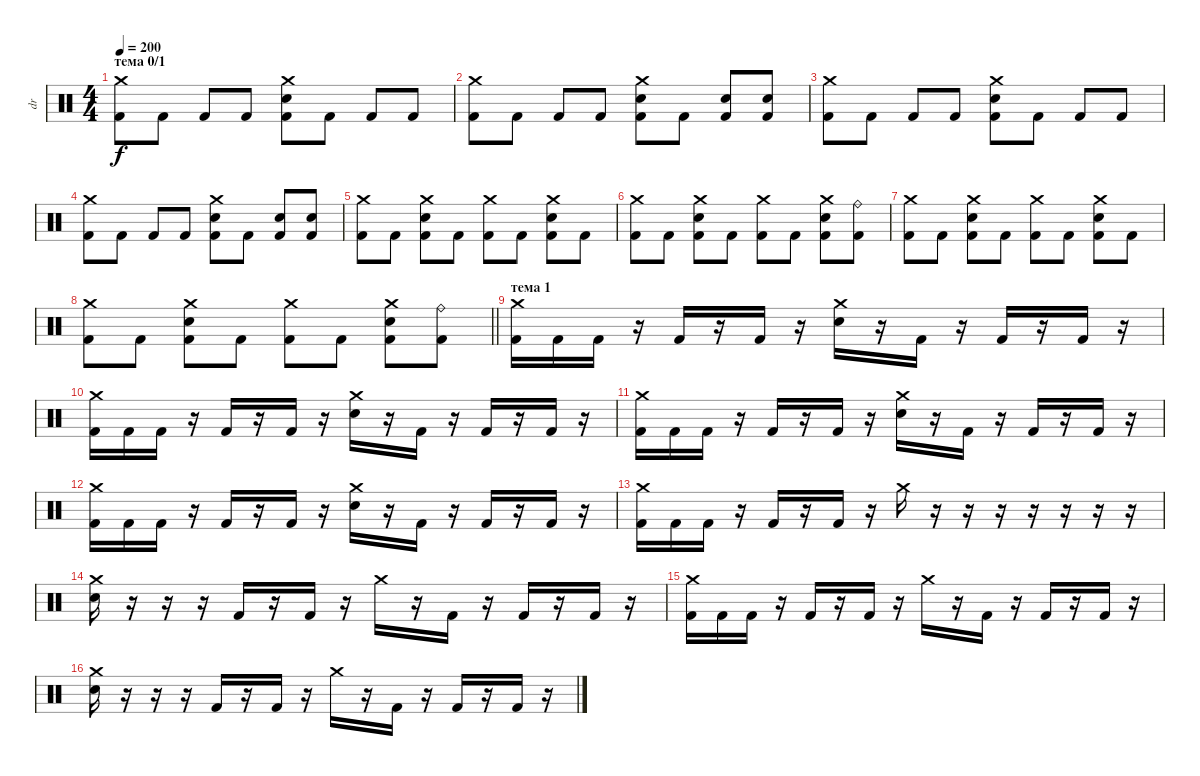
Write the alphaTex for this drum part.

\track ("dr" "dr") {instrument percussion}
\staff {score}
\articulation defaults
\ts (4 4)
\section ("" "тема 0/1")
\tempo 200
\clef neutral
\ks c
("Crash medium (hit)" "Kick (hit) 2").8{dy f} "Kick (hit) 2".8 "Kick (hit) 2".8 "Kick (hit) 2".8 ("Crash medium (hit)" "Electric Snare (hit)" "Kick (hit) 2").8 "Kick (hit) 2".8 "Kick (hit) 2".8 "Kick (hit) 2".8 |
("Crash medium (hit)" "Kick (hit) 2").8 "Kick (hit) 2".8 "Kick (hit) 2".8 "Kick (hit) 2".8 ("Crash medium (hit)" "Electric Snare (hit)" "Kick (hit) 2").8 "Kick (hit) 2".8 ("Electric Snare (hit)" "Kick (hit) 2").8 ("Electric Snare (hit)" "Kick (hit) 2").8 |
("Crash medium (hit)" "Kick (hit) 2").8 "Kick (hit) 2".8 "Kick (hit) 2".8 "Kick (hit) 2".8 ("Crash medium (hit)" "Electric Snare (hit)" "Kick (hit) 2").8 "Kick (hit) 2".8 "Kick (hit) 2".8 "Kick (hit) 2".8 |
("Crash medium (hit)" "Kick (hit) 2").8 "Kick (hit) 2".8 "Kick (hit) 2".8 "Kick (hit) 2".8 ("Crash medium (hit)" "Electric Snare (hit)" "Kick (hit) 2").8 "Kick (hit) 2".8 ("Electric Snare (hit)" "Kick (hit) 2").8 ("Electric Snare (hit)" "Kick (hit) 2").8 |
("Crash medium (hit)" "Kick (hit) 2").8 "Kick (hit) 2".8 ("Crash medium (hit)" "Electric Snare (hit)" "Kick (hit) 2").8 "Kick (hit) 2".8 ("Crash medium (hit)" "Kick (hit) 2").8 "Kick (hit) 2".8 ("Crash medium (hit)" "Electric Snare (hit)" "Kick (hit) 2").8 "Kick (hit) 2".8 |
("Crash medium (hit)" "Kick (hit) 2").8 "Kick (hit) 2".8 ("Crash medium (hit)" "Electric Snare (hit)" "Kick (hit) 2").8 "Kick (hit) 2".8 ("Crash medium (hit)" "Kick (hit) 2").8 "Kick (hit) 2".8 ("Crash medium (hit)" "Electric Snare (hit)" "Kick (hit) 2").8 ("Ride (bell)" "Kick (hit) 2").8 |
("Crash medium (hit)" "Kick (hit) 2").8 "Kick (hit) 2".8 ("Crash medium (hit)" "Electric Snare (hit)" "Kick (hit) 2").8 "Kick (hit) 2".8 ("Crash medium (hit)" "Kick (hit) 2").8 "Kick (hit) 2".8 ("Crash medium (hit)" "Electric Snare (hit)" "Kick (hit) 2").8 "Kick (hit) 2".8 |
\barLineRight lightlight
("Crash medium (hit)" "Kick (hit) 2").8 "Kick (hit) 2".8 ("Crash medium (hit)" "Electric Snare (hit)" "Kick (hit) 2").8 "Kick (hit) 2".8 ("Crash medium (hit)" "Kick (hit) 2").8 "Kick (hit) 2".8 ("Crash medium (hit)" "Electric Snare (hit)" "Kick (hit) 2").8 ("Ride (bell)" "Kick (hit) 2").8 |
\section ("" "тема 1")
("Crash medium (hit)" "Kick (hit) 2").16 "Kick (hit) 2".16 "Kick (hit) 2".16 r.16 "Kick (hit) 2".16 r.16 "Kick (hit) 2".16 r.16 ("Crash medium (hit)" "Electric Snare (hit)").16 r.16 "Kick (hit) 2".16 r.16 "Kick (hit) 2".16 r.16 "Kick (hit) 2".16 r.16 |
("Crash medium (hit)" "Kick (hit) 2").16 "Kick (hit) 2".16 "Kick (hit) 2".16 r.16 "Kick (hit) 2".16 r.16 "Kick (hit) 2".16 r.16 ("Crash medium (hit)" "Electric Snare (hit)").16 r.16 "Kick (hit) 2".16 r.16 "Kick (hit) 2".16 r.16 "Kick (hit) 2".16 r.16 |
("Crash medium (hit)" "Kick (hit) 2").16 "Kick (hit) 2".16 "Kick (hit) 2".16 r.16 "Kick (hit) 2".16 r.16 "Kick (hit) 2".16 r.16 ("Crash medium (hit)" "Electric Snare (hit)").16 r.16 "Kick (hit) 2".16 r.16 "Kick (hit) 2".16 r.16 "Kick (hit) 2".16 r.16 |
("Crash medium (hit)" "Kick (hit) 2").16 "Kick (hit) 2".16 "Kick (hit) 2".16 r.16 "Kick (hit) 2".16 r.16 "Kick (hit) 2".16 r.16 ("Crash medium (hit)" "Electric Snare (hit)").16 r.16 "Kick (hit) 2".16 r.16 "Kick (hit) 2".16 r.16 "Kick (hit) 2".16 r.16 |
("Crash medium (hit)" "Kick (hit) 2").16 "Kick (hit) 2".16 "Kick (hit) 2".16 r.16 "Kick (hit) 2".16 r.16 "Kick (hit) 2".16 r.16 "Crash medium (hit)".16 r.16 r.16 r.16 r.16 r.16 r.16 r.16 |
("Crash medium (hit)" "Electric Snare (hit)").16 r.16 r.16 r.16 "Kick (hit) 2".16 r.16 "Kick (hit) 2".16 r.16 "Crash medium (hit)".16 r.16 "Kick (hit) 2".16 r.16 "Kick (hit) 2".16 r.16 "Kick (hit) 2".16 r.16 |
("Crash medium (hit)" "Kick (hit) 2").16 "Kick (hit) 2".16 "Kick (hit) 2".16 r.16 "Kick (hit) 2".16 r.16 "Kick (hit) 2".16 r.16 "Crash medium (hit)".16 r.16 "Kick (hit) 2".16 r.16 "Kick (hit) 2".16 r.16 "Kick (hit) 2".16 r.16 |
("Crash medium (hit)" "Electric Snare (hit)").16 r.16 r.16 r.16 "Kick (hit) 2".16 r.16 "Kick (hit) 2".16 r.16 "Crash medium (hit)".16 r.16 "Kick (hit) 2".16 r.16 "Kick (hit) 2".16 r.16 "Kick (hit) 2".16 r.16
